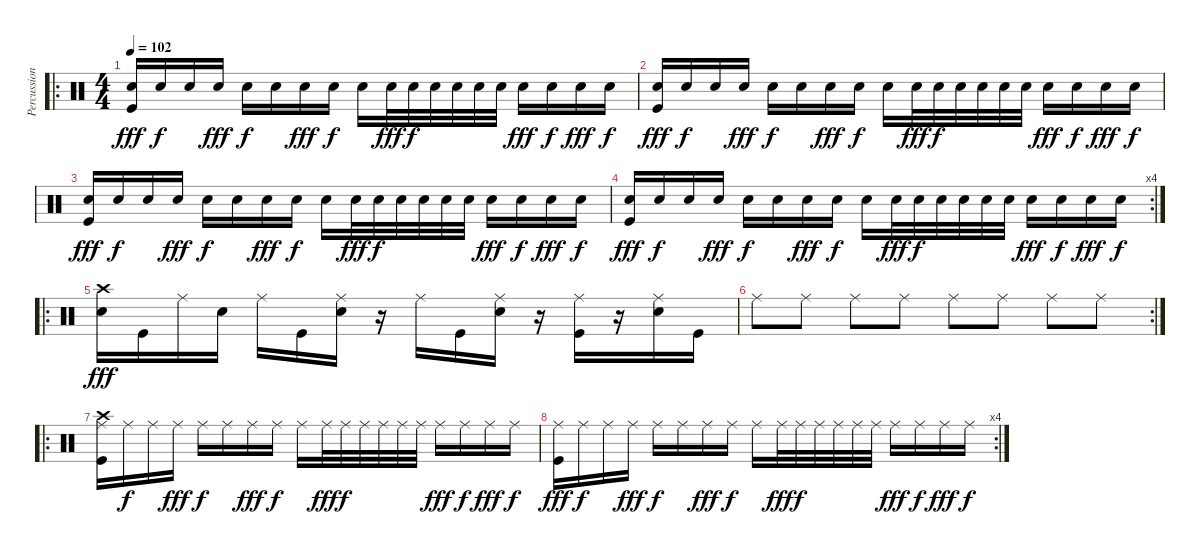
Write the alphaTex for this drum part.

\track ("Percussion" "Percussion") {instrument percussion}
\staff {score}
\articulation defaults
\ro
\ts (4 4)
\tempo 102
\clef neutral
\ks c
("Snare (hit) 2" "Kick (hit)").16{dy fff} "Snare (hit) 2".16{dy f} "Snare (hit) 2".16 "Snare (hit) 2".16{dy fff} "Snare (hit) 2".16{dy f} "Snare (hit) 2".16 "Snare (hit) 2".16{dy fff} "Snare (hit) 2".16{dy f} "Snare (hit) 2".16 "Snare (hit) 2".32{dy fff} "Snare (hit) 2".32{dy f} "Snare (hit) 2".32 "Snare (hit) 2".32 "Snare (hit) 2".32 "Snare (hit) 2".32 "Snare (hit) 2".16{dy fff} "Snare (hit) 2".16{dy f} "Snare (hit) 2".16{dy fff} "Snare (hit) 2".16{dy f} |
("Snare (hit) 2" "Kick (hit)").16{dy fff} "Snare (hit) 2".16{dy f} "Snare (hit) 2".16 "Snare (hit) 2".16{dy fff} "Snare (hit) 2".16{dy f} "Snare (hit) 2".16 "Snare (hit) 2".16{dy fff} "Snare (hit) 2".16{dy f} "Snare (hit) 2".16 "Snare (hit) 2".32{dy fff} "Snare (hit) 2".32{dy f} "Snare (hit) 2".32 "Snare (hit) 2".32 "Snare (hit) 2".32 "Snare (hit) 2".32 "Snare (hit) 2".16{dy fff} "Snare (hit) 2".16{dy f} "Snare (hit) 2".16{dy fff} "Snare (hit) 2".16{dy f} |
("Snare (hit) 2" "Kick (hit)").16{dy fff} "Snare (hit) 2".16{dy f} "Snare (hit) 2".16 "Snare (hit) 2".16{dy fff} "Snare (hit) 2".16{dy f} "Snare (hit) 2".16 "Snare (hit) 2".16{dy fff} "Snare (hit) 2".16{dy f} "Snare (hit) 2".16 "Snare (hit) 2".32{dy fff} "Snare (hit) 2".32{dy f} "Snare (hit) 2".32 "Snare (hit) 2".32 "Snare (hit) 2".32 "Snare (hit) 2".32 "Snare (hit) 2".16{dy fff} "Snare (hit) 2".16{dy f} "Snare (hit) 2".16{dy fff} "Snare (hit) 2".16{dy f} |
\rc 4
("Snare (hit) 2" "Kick (hit)").16{dy fff} "Snare (hit) 2".16{dy f} "Snare (hit) 2".16 "Snare (hit) 2".16{dy fff} "Snare (hit) 2".16{dy f} "Snare (hit) 2".16 "Snare (hit) 2".16{dy fff} "Snare (hit) 2".16{dy f} "Snare (hit) 2".16 "Snare (hit) 2".32{dy fff} "Snare (hit) 2".32{dy f} "Snare (hit) 2".32 "Snare (hit) 2".32 "Snare (hit) 2".32 "Snare (hit) 2".32 "Snare (hit) 2".16{dy fff} "Snare (hit) 2".16{dy f} "Snare (hit) 2".16{dy fff} "Snare (hit) 2".16{dy f} |
\ro
("Crash high (hit)" "Snare (hit) 2").16{dy fff} "Kick (hit)".16 "Ride (middle)".16 "Snare (hit) 2".16 "Ride (middle)".16 "Kick (hit)".16 ("Ride (middle)" "Snare (hit) 2").16 r.16 "Ride (middle)".16 "Kick (hit)".16 ("Ride (middle)" "Snare (hit) 2").16 r.16 ("Ride (middle)" "Kick (hit)").16 r.16 ("Ride (middle)" "Snare (hit) 2").16 "Kick (hit)".16 |
\rc 2 "Ride (middle)".8 "Ride (middle)".8 "Ride (middle)".8 "Ride (middle)".8 "Ride (middle)".8 "Ride (middle)".8 "Ride (middle)".8 "Ride (middle)".8
|
\ro
("Crash high (hit)" "Ride (middle)" "Kick (hit)").16 "Ride (middle)".16{dy f} "Ride (middle)".16 "Ride (middle)".16{dy fff} "Ride (middle)".16{dy f} "Ride (middle)".16 "Ride (middle)".16{dy fff} "Ride (middle)".16{dy f} "Ride (middle)".16 "Ride (middle)".32{dy fff} "Ride (middle)".32{dy f} "Ride (middle)".32 "Ride (middle)".32 "Ride (middle)".32 "Ride (middle)".32 "Ride (middle)".16{dy fff} "Ride (middle)".16{dy f} "Ride (middle)".16{dy fff} "Ride (middle)".16{dy f} |
\rc 4
("Ride (middle)" "Kick (hit)").16{dy fff} "Ride (middle)".16{dy f} "Ride (middle)".16 "Ride (middle)".16{dy fff} "Ride (middle)".16{dy f} "Ride (middle)".16 "Ride (middle)".16{dy fff} "Ride (middle)".16{dy f} "Ride (middle)".16 "Ride (middle)".32{dy fff} "Ride (middle)".32{dy f} "Ride (middle)".32 "Ride (middle)".32 "Ride (middle)".32 "Ride (middle)".32 "Ride (middle)".16{dy fff} "Ride (middle)".16{dy f} "Ride (middle)".16{dy fff} "Ride (middle)".16{dy f}
